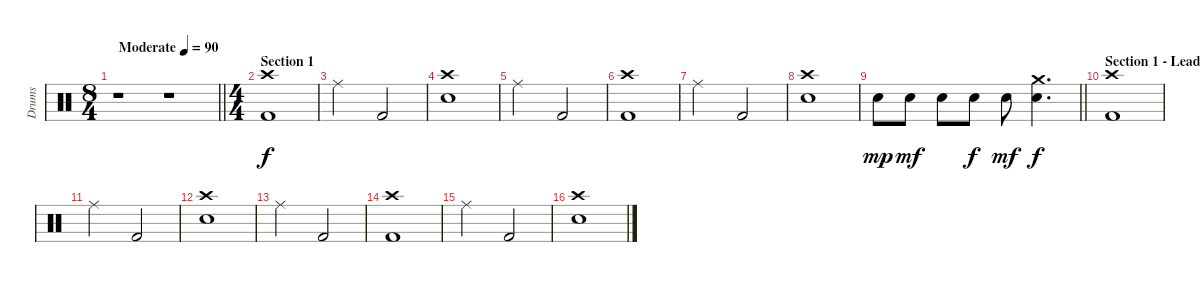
\track ("Drums" "Drums") {instrument percussion}
\staff {score}
\articulation defaults
\ts (8 4)
\tempo (90 "Moderate")
\clef neutral
\barLineRight lightlight
\ks c
r.1{dy f} r.1 |
\ts (4 4)
\section ("" "Section 1")
("Crash high (hit)" "Kick (hit) 2").1 |
"Ride (middle)".2 "Kick (hit) 2".2 |
("Crash high (hit)" "Electric Snare (hit)").1 |
"Ride (middle)".2 "Kick (hit) 2".2 |
("Crash high (hit)" "Kick (hit) 2").1 |
"Ride (middle)".2 "Kick (hit) 2".2 |
("Crash high (hit)" "Electric Snare (hit)").1 |
\barLineRight lightlight "Electric Snare (hit)".8{dy mp} "Electric Snare (hit)".8{dy mf} "Electric Snare (hit)".8 "Electric Snare (hit)".8{dy f} "Electric Snare (hit)".8{dy mf}
("Crash medium (hit)" "Electric Snare (hit)").4{d dy f} |
\section ("" "Section 1 - Lead Break 1")
("Crash high (hit)" "Kick (hit) 2").1 |
"Ride (middle)".2 "Kick (hit) 2".2 |
("Crash high (hit)" "Electric Snare (hit)").1 |
"Ride (middle)".2 "Kick (hit) 2".2 |
("Crash high (hit)" "Kick (hit) 2").1 |
"Ride (middle)".2 "Kick (hit) 2".2 |
("Crash high (hit)" "Electric Snare (hit)").1
